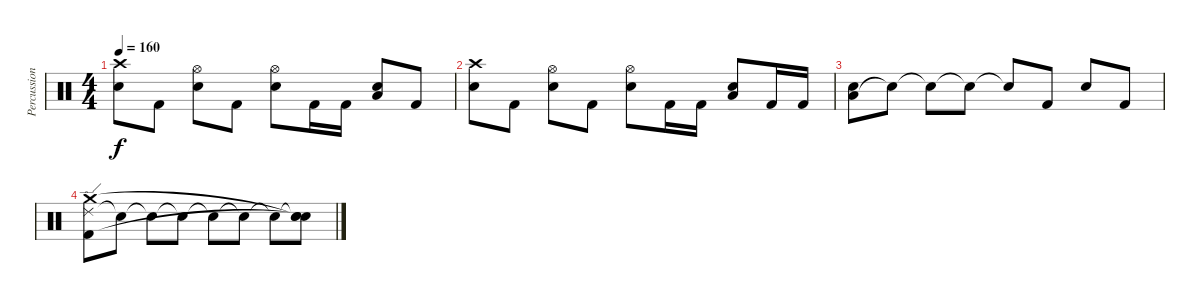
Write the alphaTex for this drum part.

\track ("Percussion" "Percussion") {instrument percussion}
\staff {score}
\articulation defaults
\ts (4 4)
\tempo 160
\clef neutral
\ks c
("Crash high (hit)" "Snare (hit) 2").8{dy f} "Kick (hit) 2".8 ("Hi-Hat (open)" "Snare (hit) 2").8 "Kick (hit) 2".8 ("Hi-Hat (open)" "Snare (hit) 2").8 "Kick (hit) 2".16 "Kick (hit) 2".16 ("Low Floor Tom (hit)" "Snare (hit) 2").8 "Kick (hit) 2".8 |
("Crash high (hit)" "Snare (hit) 2").8 "Kick (hit) 2".8 ("Hi-Hat (open)" "Snare (hit) 2").8 "Kick (hit) 2".8 ("Hi-Hat (open)" "Snare (hit) 2").8 "Kick (hit) 2".16 "Kick (hit) 2".16 ("Low Floor Tom (hit)" "Snare (hit) 2").8 "Kick (hit) 2".16 "Kick (hit) 2".16 |
("Low Floor Tom (hit)" "Snare (hit) 2").8 "Snare (hit)"{t}.8 "Snare (hit)"{t}.8 "Snare (hit)"{t}.8 "Snare (hit)"{t}.8 "Kick (hit) 2".8 "Snare (hit) 2".8 "Kick (hit) 2".8 |
("Ride (edge) 2" "Crash medium (hit)" "Kick (hit) 2").8 "Snare (hit)"{t}.8 "Snare (hit)"{t}.8 "Snare (hit)"{t}.8 "Snare (hit)"{t}.8 "Snare (hit)"{t}.8 "Snare (hit)"{t}.8 ("Snare (hit)"{t} "Snare (hit)"{t} "Snare (hit)"{t}).8
